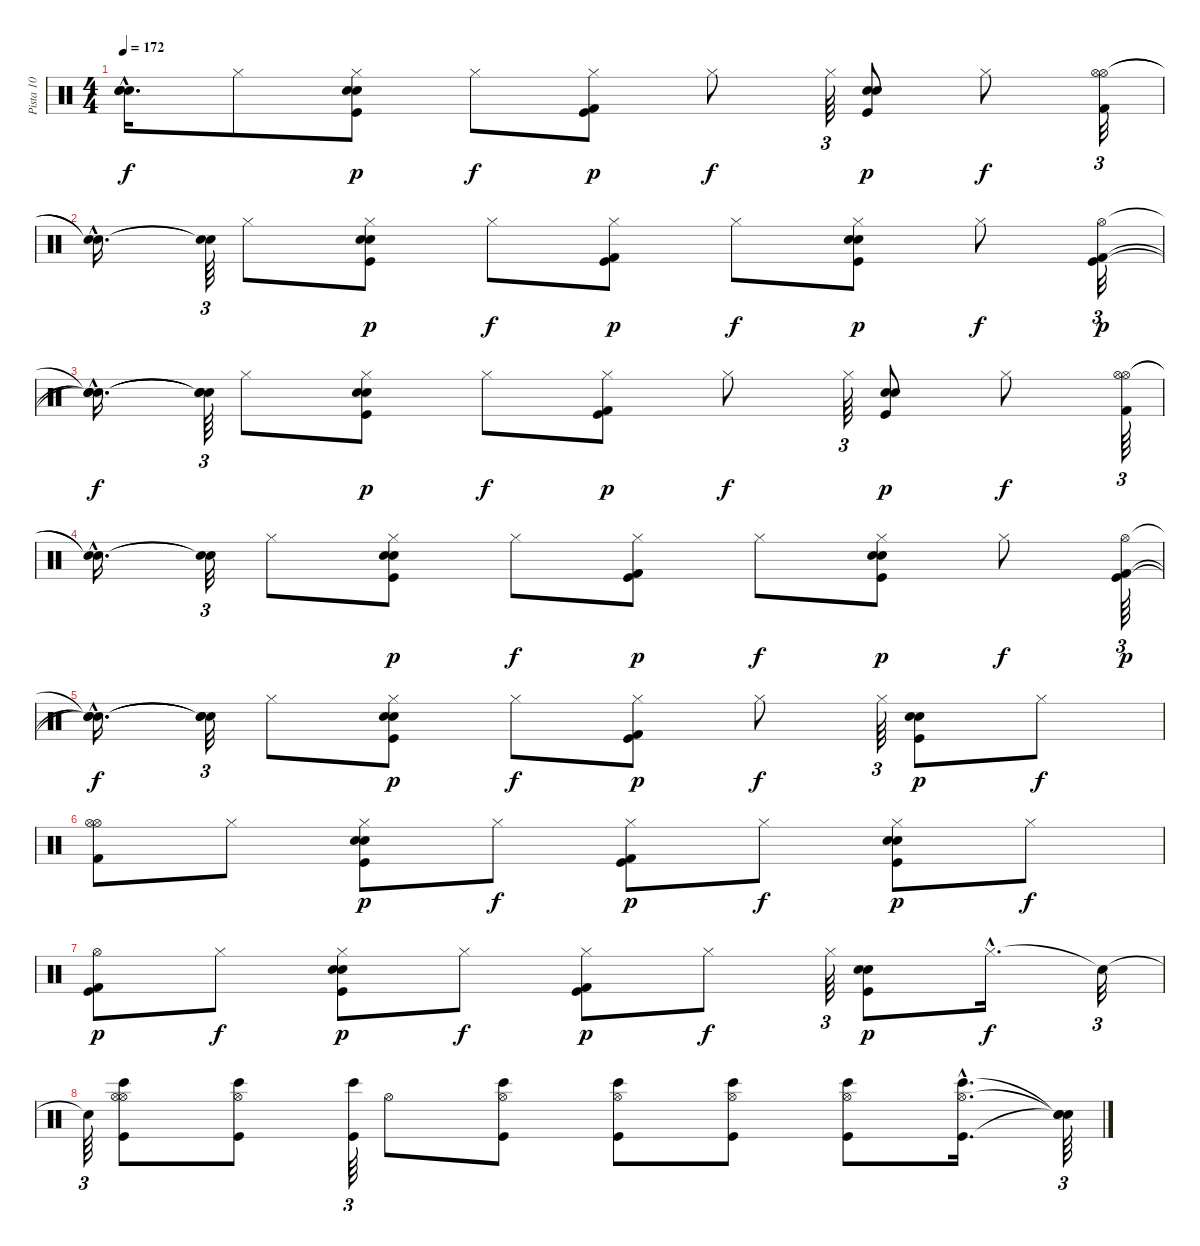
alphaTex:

\track ("Pista 10" "Pista 10") {instrument percussion}
\staff {score}
\articulation defaults
\ts (4 4)
\tempo 172
\clef neutral
\ks c
("Snare (hit)"{hac t} "Snare (hit)"{hac t} "Snare (hit)"{hac t}).16{d dy f} "Hi-Hat (closed)".8 ("Hi-Hat (closed)" "Snare (hit) 2" "Electric Snare (hit)" "Kick (hit)").8{dy p} "Hi-Hat (closed)".8{dy f} ("Hi-Hat (closed)" "Kick (hit) 2" "Kick (hit)").8{dy p} "Hi-Hat (closed)".8{dy f} "Hi-Hat (closed)".64{tu (3 2)} ("Snare (hit) 2" "Electric Snare (hit)" "Kick (hit)").8{dy p} "Hi-Hat (closed)".8{dy f} ("Hi-Hat (open)" "Hi-Hat (open)" "Kick (hit) 2").32{tu (3 2)} |
("Snare (hit)"{hac t} "Snare (hit)"{hac t}).16{d} ("Snare (hit)"{t} "Snare (hit)"{t}).64{tu (3 2)} "Hi-Hat (closed)".8 ("Hi-Hat (closed)" "Electric Snare (hit)" "Snare (hit) 2" "Kick (hit)").8{dy p} "Hi-Hat (closed)".8{dy f} ("Kick (hit) 2" "Kick (hit)" "Hi-Hat (closed)").8{dy p} "Hi-Hat (closed)".8{dy f} ("Snare (hit) 2" "Electric Snare (hit)" "Kick (hit)" "Hi-Hat (closed)").8{dy p} "Hi-Hat (closed)".8{dy f} ("Hi-Hat (open)" "Kick (hit) 2" "Kick (hit)").32{tu (3 2) dy p} |
("Snare (hit)"{hac t} "Snare (hit)"{hac t} "Snare (hit)"{hac t}).16{d dy f} ("Snare (hit)"{t} "Snare (hit)"{t} "Snare (hit)"{t}).64{tu (3 2)} "Hi-Hat (closed)".8 ("Hi-Hat (closed)" "Snare (hit) 2" "Electric Snare (hit)" "Kick (hit)").8{dy p} "Hi-Hat (closed)".8{dy f} ("Hi-Hat (closed)" "Kick (hit) 2" "Kick (hit)").8{dy p} "Hi-Hat (closed)".8{dy f} "Hi-Hat (closed)".64{tu (3 2)} ("Snare (hit) 2" "Electric Snare (hit)" "Kick (hit)").8{dy p} "Hi-Hat (closed)".8{dy f} ("Hi-Hat (open)" "Hi-Hat (open)" "Kick (hit) 2").64{tu (3 2)} |
("Snare (hit)"{hac t} "Snare (hit)"{hac t}).16{d} ("Snare (hit)"{t} "Snare (hit)"{t}).32{tu (3 2)} "Hi-Hat (closed)".8 ("Hi-Hat (closed)" "Electric Snare (hit)" "Snare (hit) 2" "Kick (hit)").8{dy p} "Hi-Hat (closed)".8{dy f} ("Kick (hit) 2" "Kick (hit)" "Hi-Hat (closed)").8{dy p} "Hi-Hat (closed)".8{dy f} ("Snare (hit) 2" "Electric Snare (hit)" "Kick (hit)" "Hi-Hat (closed)").8{dy p} "Hi-Hat (closed)".8{dy f} ("Hi-Hat (open)" "Kick (hit) 2" "Kick (hit)").64{tu (3 2) dy p} |
("Snare (hit)"{hac t} "Snare (hit)"{hac t} "Snare (hit)"{hac t}).16{d dy f} ("Snare (hit)"{t} "Snare (hit)"{t} "Snare (hit)"{t}).32{tu (3 2)} "Hi-Hat (closed)".8 ("Hi-Hat (closed)" "Snare (hit) 2" "Electric Snare (hit)" "Kick (hit)").8{dy p} "Hi-Hat (closed)".8{dy f} ("Hi-Hat (closed)" "Kick (hit) 2" "Kick (hit)").8{dy p} "Hi-Hat (closed)".8{dy f} "Hi-Hat (closed)".64{tu (3 2)} ("Snare (hit) 2" "Electric Snare (hit)" "Kick (hit)").8{dy p} "Hi-Hat (closed)".8{dy f} |
("Hi-Hat (open)" "Hi-Hat (open)" "Kick (hit) 2").8 "Hi-Hat (closed)".8 ("Hi-Hat (closed)" "Electric Snare (hit)" "Snare (hit) 2" "Kick (hit)").8{dy p} "Hi-Hat (closed)".8{dy f} ("Kick (hit) 2" "Kick (hit)" "Hi-Hat (closed)").8{dy p} "Hi-Hat (closed)".8{dy f} ("Snare (hit) 2" "Electric Snare (hit)" "Kick (hit)" "Hi-Hat (closed)").8{dy p} "Hi-Hat (closed)".8{dy f} |
("Hi-Hat (open)" "Kick (hit) 2" "Kick (hit)").8{dy p} "Hi-Hat (closed)".8{dy f} ("Hi-Hat (closed)" "Snare (hit) 2" "Electric Snare (hit)" "Kick (hit)").8{dy p} "Hi-Hat (closed)".8{dy f} ("Hi-Hat (closed)" "Kick (hit) 2" "Kick (hit)").8{dy p} "Hi-Hat (closed)".8{dy f} "Hi-Hat (closed)".64{tu (3 2)} ("Snare (hit) 2" "Electric Snare (hit)" "Kick (hit)").8{dy p} "Hi-Hat (closed)"{hac}.16{d dy f} "Snare (hit)"{t}.32{tu (3 2)} |
"Snare (hit)"{t}.64{tu (3 2)} ("Hi-Hat (open)" "Kick (hit)" "Bongo High (hit)" "Hi-Hat (open)").8 ("Kick (hit)" "Bongo High (hit)" "Hi-Hat (open)").8 ("Bongo High (hit)" "Kick (hit)").64{tu (3 2)} "Hi-Hat (open)".8 ("Bongo High (hit)" "Kick (hit)" "Hi-Hat (open)").8 ("Bongo High (hit)" "Kick (hit)" "Hi-Hat (open)").8 ("Bongo High (hit)" "Kick (hit)" "Hi-Hat (open)").8 ("Bongo High (hit)" "Kick (hit)" "Hi-Hat (open)").8 ("Bongo High (hit)"{hac} "Kick (hit)"{hac} "Hi-Hat (open)"{hac}).16{d} ("Snare (hit)"{t} "Snare (hit)"{t} "Snare (hit)"{t}).64{tu (3 2)}
